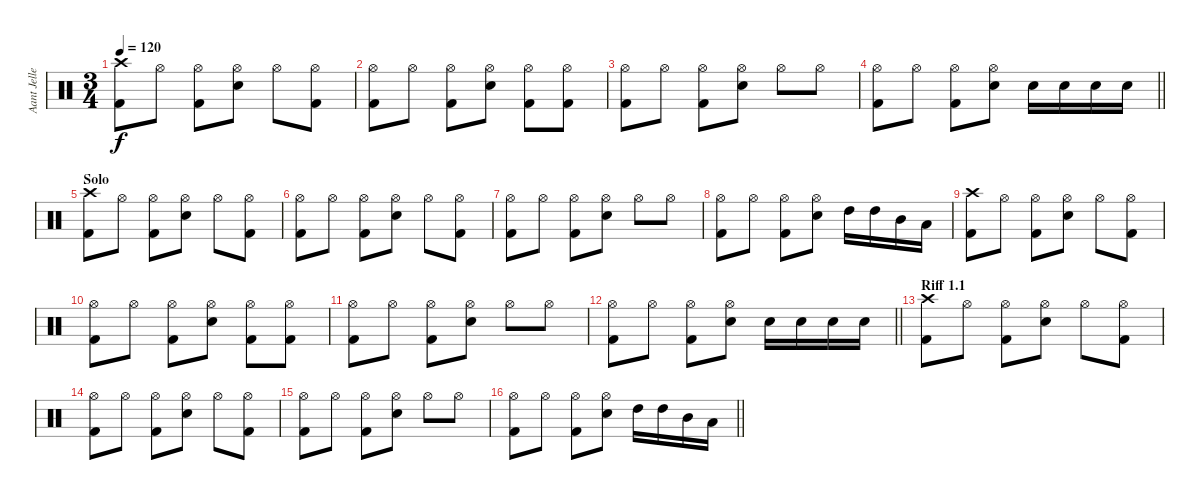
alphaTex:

\track ("Aant Jelle" "Aant Jelle") {instrument percussion}
\staff {score}
\articulation defaults
\ts (3 4)
\tempo 120
\clef neutral
\ks c
("Crash high (hit)" "Kick (hit) 2").8{dy f} "Hi-Hat (open)".8 ("Hi-Hat (open)" "Kick (hit) 2").8 ("Hi-Hat (open)" "Snare (hit) 2").8 "Hi-Hat (open)".8 ("Hi-Hat (open)" "Kick (hit) 2").8 |
("Hi-Hat (open)" "Kick (hit) 2").8 "Hi-Hat (open)".8 ("Hi-Hat (open)" "Kick (hit) 2").8 ("Hi-Hat (open)" "Snare (hit) 2").8 ("Hi-Hat (open)" "Kick (hit) 2").8 ("Hi-Hat (open)" "Kick (hit) 2").8 |
("Hi-Hat (open)" "Kick (hit) 2").8 "Hi-Hat (open)".8 ("Hi-Hat (open)" "Kick (hit) 2").8 ("Hi-Hat (open)" "Snare (hit) 2").8 "Hi-Hat (open)".8 "Hi-Hat (open)".8 |
\barLineRight lightlight
("Hi-Hat (open)" "Kick (hit) 2").8 "Hi-Hat (open)".8 ("Hi-Hat (open)" "Kick (hit) 2").8 ("Hi-Hat (open)" "Snare (hit) 2").8 "Snare (hit) 2".16 "Snare (hit) 2".16 "Snare (hit) 2".16 "Snare (hit) 2".16 |
\section ("" "Solo")
("Crash high (hit)" "Kick (hit) 2").8 "Hi-Hat (open)".8 ("Hi-Hat (open)" "Kick (hit) 2").8 ("Hi-Hat (open)" "Snare (hit) 2").8 "Hi-Hat (open)".8 ("Hi-Hat (open)" "Kick (hit) 2").8 |
("Hi-Hat (open)" "Kick (hit) 2").8 "Hi-Hat (open)".8 ("Hi-Hat (open)" "Kick (hit) 2").8 ("Hi-Hat (open)" "Snare (hit) 2").8 "Hi-Hat (open)".8 ("Hi-Hat (open)" "Kick (hit) 2").8 |
("Hi-Hat (open)" "Kick (hit) 2").8 "Hi-Hat (open)".8 ("Hi-Hat (open)" "Kick (hit) 2").8 ("Hi-Hat (open)" "Snare (hit) 2").8 "Hi-Hat (open)".8 "Hi-Hat (open)".8 |
("Hi-Hat (open)" "Kick (hit) 2").8 "Hi-Hat (open)".8 ("Hi-Hat (open)" "Kick (hit) 2").8 ("Hi-Hat (open)" "Snare (hit) 2").8 "High Tom (hit)".16 "High Tom (hit)".16 "Mid Tom (hit)".16 "Low Tom (hit)".16 |
("Crash high (hit)" "Kick (hit) 2").8 "Hi-Hat (open)".8 ("Hi-Hat (open)" "Kick (hit) 2").8 ("Hi-Hat (open)" "Snare (hit) 2").8 "Hi-Hat (open)".8 ("Hi-Hat (open)" "Kick (hit) 2").8 |
("Hi-Hat (open)" "Kick (hit) 2").8 "Hi-Hat (open)".8 ("Hi-Hat (open)" "Kick (hit) 2").8 ("Hi-Hat (open)" "Snare (hit) 2").8 ("Hi-Hat (open)" "Kick (hit) 2").8 ("Hi-Hat (open)" "Kick (hit) 2").8 |
("Hi-Hat (open)" "Kick (hit) 2").8 "Hi-Hat (open)".8 ("Hi-Hat (open)" "Kick (hit) 2").8 ("Hi-Hat (open)" "Snare (hit) 2").8 "Hi-Hat (open)".8 "Hi-Hat (open)".8 |
\barLineRight lightlight
("Hi-Hat (open)" "Kick (hit) 2").8 "Hi-Hat (open)".8 ("Hi-Hat (open)" "Kick (hit) 2").8 ("Hi-Hat (open)" "Snare (hit) 2").8 "Snare (hit) 2".16 "Snare (hit) 2".16 "Snare (hit) 2".16 "Snare (hit) 2".16 |
\section ("" "Riff 1.1")
("Crash high (hit)" "Kick (hit) 2").8 "Hi-Hat (open)".8 ("Hi-Hat (open)" "Kick (hit) 2").8 ("Hi-Hat (open)" "Snare (hit) 2").8 "Hi-Hat (open)".8 ("Hi-Hat (open)" "Kick (hit) 2").8 |
("Hi-Hat (open)" "Kick (hit) 2").8 "Hi-Hat (open)".8 ("Hi-Hat (open)" "Kick (hit) 2").8 ("Hi-Hat (open)" "Snare (hit) 2").8 "Hi-Hat (open)".8 ("Hi-Hat (open)" "Kick (hit) 2").8 |
("Hi-Hat (open)" "Kick (hit) 2").8 "Hi-Hat (open)".8 ("Hi-Hat (open)" "Kick (hit) 2").8 ("Hi-Hat (open)" "Snare (hit) 2").8 "Hi-Hat (open)".8 "Hi-Hat (open)".8 |
\barLineRight lightlight
("Hi-Hat (open)" "Kick (hit) 2").8 "Hi-Hat (open)".8 ("Hi-Hat (open)" "Kick (hit) 2").8 ("Hi-Hat (open)" "Snare (hit) 2").8 "High Tom (hit)".16 "High Tom (hit)".16 "Mid Tom (hit)".16 "Low Tom (hit)".16
